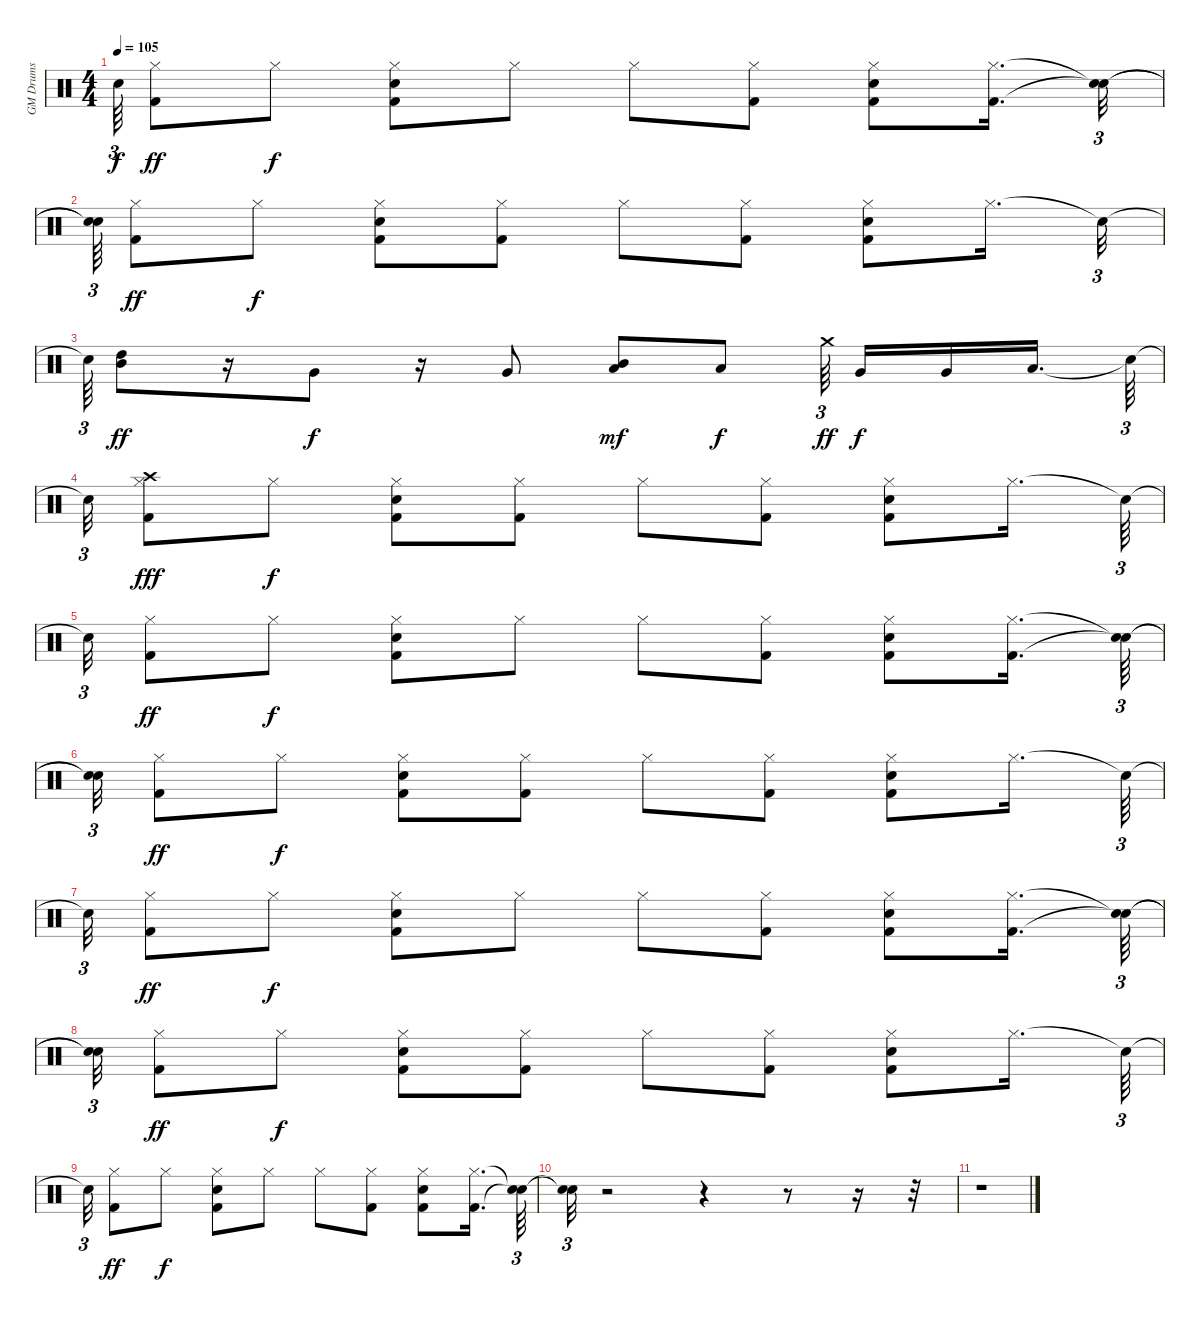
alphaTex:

\track ("GM Drums" "GM Drums") {instrument percussion}
\staff {score}
\articulation defaults
\ts (4 4)
\tempo 105
\clef neutral
\ks c "Snare (hit)"{t}.64{tu (3 2) dy f}
("Kick (hit) 2" "Hi-Hat (closed)").8{dy ff} "Hi-Hat (closed)".8{dy f} ("Kick (hit) 2" "Electric Snare (hit)" "Hi-Hat (closed)").8 "Hi-Hat (closed)".8 "Hi-Hat (closed)".8 ("Kick (hit) 2" "Hi-Hat (closed)").8 ("Kick (hit) 2" "Electric Snare (hit)" "Hi-Hat (closed)").8 ("Kick (hit) 2" "Hi-Hat (closed)").16{d} ("Snare (hit)"{t} "Snare (hit)"{t}).32{tu (3 2)} |
("Snare (hit)"{t} "Snare (hit)"{t}).64{tu (3 2)} ("Kick (hit) 2" "Hi-Hat (closed)").8{dy ff} "Hi-Hat (closed)".8{dy f} ("Kick (hit) 2" "Electric Snare (hit)" "Hi-Hat (closed)").8 ("Kick (hit) 2" "Hi-Hat (closed)").8 "Hi-Hat (closed)".8 ("Kick (hit) 2" "Hi-Hat (closed)").8 ("Kick (hit) 2" "Electric Snare (hit)" "Hi-Hat (closed)").8 "Hi-Hat (closed)".16{d} "Snare (hit)"{t}.32{tu (3 2)} |
"Snare (hit)"{t}.64{tu (3 2)} ("Mid Tom (hit)" "High Tom (hit)").8{dy ff} r.16 "Very Low Tom (hit)".8{dy f} r.16 "Very Low Tom (hit)".8 ("Low Tom (hit)" "Mid Tom (hit)").8{dy mf} "Low Tom (hit)".8{dy f} "Crash medium (hit)".64{tu (3 2) dy ff beam splitsecondary} "Very Low Tom (hit)".16{dy f} "Very Low Tom (hit)".16 "Low Floor Tom (hit)".16{d beam splitsecondary} "Snare (hit)"{t}.64{tu (3 2)} |
"Snare (hit)"{t}.32{tu (3 2)} ("Kick (hit) 2" "Hi-Hat (closed)" "Crash high (hit)").8{dy fff} "Hi-Hat (closed)".8{dy f} ("Kick (hit) 2" "Electric Snare (hit)" "Hi-Hat (closed)").8 ("Kick (hit) 2" "Hi-Hat (closed)").8 "Hi-Hat (closed)".8 ("Kick (hit) 2" "Hi-Hat (closed)").8 ("Kick (hit) 2" "Electric Snare (hit)" "Hi-Hat (closed)").8 "Hi-Hat (closed)".16{d} "Snare (hit)"{t}.64{tu (3 2)} |
"Snare (hit)"{t}.32{tu (3 2)} ("Kick (hit) 2" "Hi-Hat (closed)").8{dy ff} "Hi-Hat (closed)".8{dy f} ("Kick (hit) 2" "Electric Snare (hit)" "Hi-Hat (closed)").8 "Hi-Hat (closed)".8 "Hi-Hat (closed)".8 ("Kick (hit) 2" "Hi-Hat (closed)").8 ("Kick (hit) 2" "Electric Snare (hit)" "Hi-Hat (closed)").8 ("Kick (hit) 2" "Hi-Hat (closed)").16{d} ("Snare (hit)"{t} "Snare (hit)"{t}).64{tu (3 2)} |
("Snare (hit)"{t} "Snare (hit)"{t}).32{tu (3 2)} ("Kick (hit) 2" "Hi-Hat (closed)").8{dy ff} "Hi-Hat (closed)".8{dy f} ("Kick (hit) 2" "Electric Snare (hit)" "Hi-Hat (closed)").8 ("Kick (hit) 2" "Hi-Hat (closed)").8 "Hi-Hat (closed)".8 ("Kick (hit) 2" "Hi-Hat (closed)").8 ("Kick (hit) 2" "Electric Snare (hit)" "Hi-Hat (closed)").8 "Hi-Hat (closed)".16{d} "Snare (hit)"{t}.64{tu (3 2)} |
"Snare (hit)"{t}.32{tu (3 2)} ("Kick (hit) 2" "Hi-Hat (closed)").8{dy ff} "Hi-Hat (closed)".8{dy f} ("Kick (hit) 2" "Electric Snare (hit)" "Hi-Hat (closed)").8 "Hi-Hat (closed)".8 "Hi-Hat (closed)".8 ("Kick (hit) 2" "Hi-Hat (closed)").8 ("Kick (hit) 2" "Electric Snare (hit)" "Hi-Hat (closed)").8 ("Kick (hit) 2" "Hi-Hat (closed)").16{d} ("Snare (hit)"{t} "Snare (hit)"{t}).64{tu (3 2)} |
("Snare (hit)"{t} "Snare (hit)"{t}).32{tu (3 2)} ("Kick (hit) 2" "Hi-Hat (closed)").8{dy ff} "Hi-Hat (closed)".8{dy f} ("Kick (hit) 2" "Electric Snare (hit)" "Hi-Hat (closed)").8 ("Kick (hit) 2" "Hi-Hat (closed)").8 "Hi-Hat (closed)".8 ("Kick (hit) 2" "Hi-Hat (closed)").8 ("Kick (hit) 2" "Electric Snare (hit)" "Hi-Hat (closed)").8 "Hi-Hat (closed)".16{d} "Snare (hit)"{t}.64{tu (3 2)} |
"Snare (hit)"{t}.32{tu (3 2)} ("Kick (hit) 2" "Hi-Hat (closed)").8{dy ff} "Hi-Hat (closed)".8{dy f} ("Kick (hit) 2" "Electric Snare (hit)" "Hi-Hat (closed)").8 "Hi-Hat (closed)".8 "Hi-Hat (closed)".8 ("Kick (hit) 2" "Hi-Hat (closed)").8 ("Kick (hit) 2" "Electric Snare (hit)" "Hi-Hat (closed)").8 ("Kick (hit) 2" "Hi-Hat (closed)").16{d} ("Snare (hit)"{t} "Snare (hit)"{t}).64{tu (3 2)} |
("Snare (hit)"{t} "Snare (hit)"{t}).32{tu (3 2)} r.2 r.4 r.8 r.16 r.32 |
r.1
